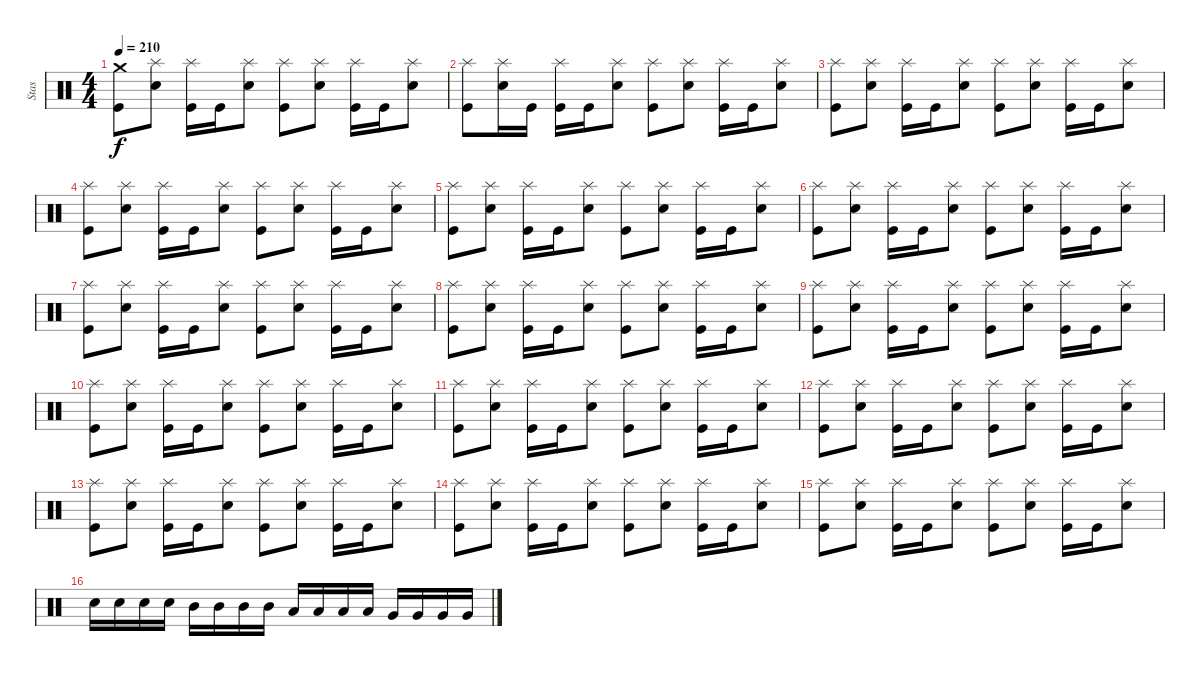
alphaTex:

\track ("Stas" "Stas") {instrument percussion}
\staff {score}
\articulation defaults
\ts (4 4)
\tempo 210
\clef neutral
\ks c
("Crash medium (hit)" "Kick (hit)").8{dy f} ("Splash (hit)" "Electric Snare (hit)").8 ("Splash (hit)" "Kick (hit)").16 "Kick (hit)".16 ("Splash (hit)" "Electric Snare (hit)").8 ("Splash (hit)" "Kick (hit)").8 ("Splash (hit)" "Electric Snare (hit)").8 ("Splash (hit)" "Kick (hit)").16 "Kick (hit)".16 ("Splash (hit)" "Electric Snare (hit)").8 |
("Splash (hit)" "Kick (hit)").8 ("Splash (hit)" "Electric Snare (hit)").16 "Kick (hit)".16 ("Splash (hit)" "Kick (hit)").16 "Kick (hit)".16 ("Splash (hit)" "Electric Snare (hit)").8 ("Splash (hit)" "Kick (hit)").8 ("Splash (hit)" "Electric Snare (hit)").8 ("Splash (hit)" "Kick (hit)").16 "Kick (hit)".16 ("Splash (hit)" "Electric Snare (hit)").8 |
("Splash (hit)" "Kick (hit)").8 ("Splash (hit)" "Electric Snare (hit)").8 ("Splash (hit)" "Kick (hit)").16 "Kick (hit)".16 ("Splash (hit)" "Electric Snare (hit)").8 ("Splash (hit)" "Kick (hit)").8 ("Splash (hit)" "Electric Snare (hit)").8 ("Splash (hit)" "Kick (hit)").16 "Kick (hit)".16 ("Splash (hit)" "Electric Snare (hit)").8 |
("Splash (hit)" "Kick (hit)").8 ("Splash (hit)" "Electric Snare (hit)").8 ("Splash (hit)" "Kick (hit)").16 "Kick (hit)".16 ("Splash (hit)" "Electric Snare (hit)").8 ("Splash (hit)" "Kick (hit)").8 ("Splash (hit)" "Electric Snare (hit)").8 ("Splash (hit)" "Kick (hit)").16 "Kick (hit)".16 ("Splash (hit)" "Electric Snare (hit)").8 |
("Splash (hit)" "Kick (hit)").8 ("Splash (hit)" "Electric Snare (hit)").8 ("Splash (hit)" "Kick (hit)").16 "Kick (hit)".16 ("Splash (hit)" "Electric Snare (hit)").8 ("Splash (hit)" "Kick (hit)").8 ("Splash (hit)" "Electric Snare (hit)").8 ("Splash (hit)" "Kick (hit)").16 "Kick (hit)".16 ("Splash (hit)" "Electric Snare (hit)").8 |
("Splash (hit)" "Kick (hit)").8 ("Splash (hit)" "Electric Snare (hit)").8 ("Splash (hit)" "Kick (hit)").16 "Kick (hit)".16 ("Splash (hit)" "Electric Snare (hit)").8 ("Splash (hit)" "Kick (hit)").8 ("Splash (hit)" "Electric Snare (hit)").8 ("Splash (hit)" "Kick (hit)").16 "Kick (hit)".16 ("Splash (hit)" "Electric Snare (hit)").8 |
("Splash (hit)" "Kick (hit)").8 ("Splash (hit)" "Electric Snare (hit)").8 ("Splash (hit)" "Kick (hit)").16 "Kick (hit)".16 ("Splash (hit)" "Electric Snare (hit)").8 ("Splash (hit)" "Kick (hit)").8 ("Splash (hit)" "Electric Snare (hit)").8 ("Splash (hit)" "Kick (hit)").16 "Kick (hit)".16 ("Splash (hit)" "Electric Snare (hit)").8 |
("Splash (hit)" "Kick (hit)").8 ("Splash (hit)" "Electric Snare (hit)").8 ("Splash (hit)" "Kick (hit)").16 "Kick (hit)".16 ("Splash (hit)" "Electric Snare (hit)").8 ("Splash (hit)" "Kick (hit)").8 ("Splash (hit)" "Electric Snare (hit)").8 ("Splash (hit)" "Kick (hit)").16 "Kick (hit)".16 ("Splash (hit)" "Electric Snare (hit)").8 |
("Splash (hit)" "Kick (hit)").8 ("Splash (hit)" "Electric Snare (hit)").8 ("Splash (hit)" "Kick (hit)").16 "Kick (hit)".16 ("Splash (hit)" "Electric Snare (hit)").8 ("Splash (hit)" "Kick (hit)").8 ("Splash (hit)" "Electric Snare (hit)").8 ("Splash (hit)" "Kick (hit)").16 "Kick (hit)".16 ("Splash (hit)" "Electric Snare (hit)").8 |
("Splash (hit)" "Kick (hit)").8 ("Splash (hit)" "Electric Snare (hit)").8 ("Splash (hit)" "Kick (hit)").16 "Kick (hit)".16 ("Splash (hit)" "Electric Snare (hit)").8 ("Splash (hit)" "Kick (hit)").8 ("Splash (hit)" "Electric Snare (hit)").8 ("Splash (hit)" "Kick (hit)").16 "Kick (hit)".16 ("Splash (hit)" "Electric Snare (hit)").8 |
("Splash (hit)" "Kick (hit)").8 ("Splash (hit)" "Electric Snare (hit)").8 ("Splash (hit)" "Kick (hit)").16 "Kick (hit)".16 ("Splash (hit)" "Electric Snare (hit)").8 ("Splash (hit)" "Kick (hit)").8 ("Splash (hit)" "Electric Snare (hit)").8 ("Splash (hit)" "Kick (hit)").16 "Kick (hit)".16 ("Splash (hit)" "Electric Snare (hit)").8 |
("Splash (hit)" "Kick (hit)").8 ("Splash (hit)" "Electric Snare (hit)").8 ("Splash (hit)" "Kick (hit)").16 "Kick (hit)".16 ("Splash (hit)" "Electric Snare (hit)").8 ("Splash (hit)" "Kick (hit)").8 ("Splash (hit)" "Electric Snare (hit)").8 ("Splash (hit)" "Kick (hit)").16 "Kick (hit)".16 ("Splash (hit)" "Electric Snare (hit)").8 |
("Splash (hit)" "Kick (hit)").8 ("Splash (hit)" "Electric Snare (hit)").8 ("Splash (hit)" "Kick (hit)").16 "Kick (hit)".16 ("Splash (hit)" "Electric Snare (hit)").8 ("Splash (hit)" "Kick (hit)").8 ("Splash (hit)" "Electric Snare (hit)").8 ("Splash (hit)" "Kick (hit)").16 "Kick (hit)".16 ("Splash (hit)" "Electric Snare (hit)").8 |
("Splash (hit)" "Kick (hit)").8 ("Splash (hit)" "Electric Snare (hit)").8 ("Splash (hit)" "Kick (hit)").16 "Kick (hit)".16 ("Splash (hit)" "Electric Snare (hit)").8 ("Splash (hit)" "Kick (hit)").8 ("Splash (hit)" "Electric Snare (hit)").8 ("Splash (hit)" "Kick (hit)").16 "Kick (hit)".16 ("Splash (hit)" "Electric Snare (hit)").8 |
("Splash (hit)" "Kick (hit)").8 ("Splash (hit)" "Electric Snare (hit)").8 ("Splash (hit)" "Kick (hit)").16 "Kick (hit)".16 ("Splash (hit)" "Electric Snare (hit)").8 ("Splash (hit)" "Kick (hit)").8 ("Splash (hit)" "Electric Snare (hit)").8 ("Splash (hit)" "Kick (hit)").16 "Kick (hit)".16 ("Splash (hit)" "Electric Snare (hit)").8 |
"Electric Snare (hit)".16 "Electric Snare (hit)".16 "Electric Snare (hit)".16 "Electric Snare (hit)".16 "Mid Tom (hit)".16 "Mid Tom (hit)".16 "Mid Tom (hit)".16 "Mid Tom (hit)".16 "Low Tom (hit)".16 "Low Tom (hit)".16 "Low Tom (hit)".16 "Low Tom (hit)".16 "Very Low Tom (hit)".16 "Very Low Tom (hit)".16 "Very Low Tom (hit)".16 "Very Low Tom (hit)".16
